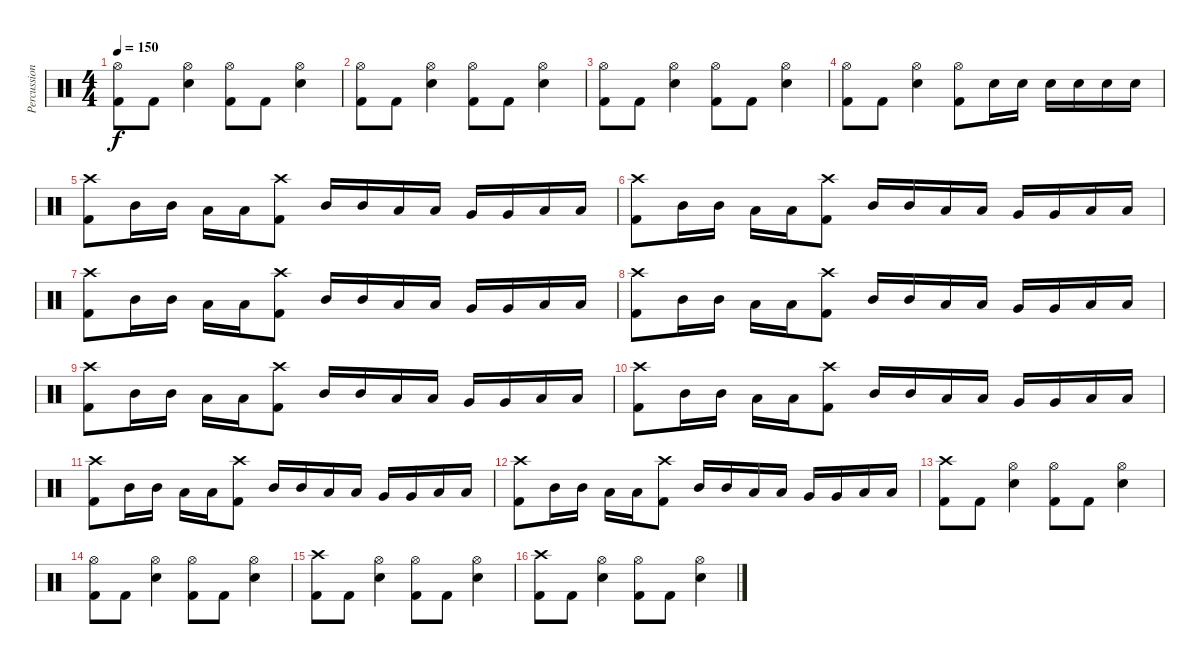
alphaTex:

\track ("Percussion" "Percussion") {instrument percussion}
\staff {score}
\articulation defaults
\ts (4 4)
\tempo 150
\clef neutral
\ks c
("Kick (hit) 2" "Hi-Hat (open)").8{dy f} "Kick (hit) 2".8 ("Electric Snare (hit)" "Hi-Hat (open)").4 ("Kick (hit) 2" "Hi-Hat (open)").8 "Kick (hit) 2".8 ("Electric Snare (hit)" "Hi-Hat (open)").4 |
("Kick (hit) 2" "Hi-Hat (open)").8 "Kick (hit) 2".8 ("Electric Snare (hit)" "Hi-Hat (open)").4 ("Kick (hit) 2" "Hi-Hat (open)").8 "Kick (hit) 2".8 ("Electric Snare (hit)" "Hi-Hat (open)").4 |
("Kick (hit) 2" "Hi-Hat (open)").8 "Kick (hit) 2".8 ("Electric Snare (hit)" "Hi-Hat (open)").4 ("Kick (hit) 2" "Hi-Hat (open)").8 "Kick (hit) 2".8 ("Electric Snare (hit)" "Hi-Hat (open)").4 |
("Kick (hit) 2" "Hi-Hat (open)").8 "Kick (hit) 2".8 ("Electric Snare (hit)" "Hi-Hat (open)").4 ("Kick (hit) 2" "Hi-Hat (open)").8 "Electric Snare (hit)".16 "Electric Snare (hit)".16 "Electric Snare (hit)".16 "Electric Snare (hit)".16 "Electric Snare (hit)".16 "Electric Snare (hit)".16 |
("Kick (hit) 2" "Crash high (hit)").8 "Mid Tom (hit)".16 "Mid Tom (hit)".16 "Low Tom (hit)".16 "Low Tom (hit)".16 ("Kick (hit) 2" "Crash high (hit)").8 "Mid Tom (hit)".16 "Mid Tom (hit)".16 "Low Tom (hit)".16 "Low Tom (hit)".16 "Very Low Tom (hit)".16 "Very Low Tom (hit)".16 "Low Floor Tom (hit)".16 "Low Floor Tom (hit)".16 |
("Kick (hit) 2" "Crash high (hit)").8 "Mid Tom (hit)".16 "Mid Tom (hit)".16 "Low Tom (hit)".16 "Low Tom (hit)".16 ("Kick (hit) 2" "Crash high (hit)").8 "Mid Tom (hit)".16 "Mid Tom (hit)".16 "Low Tom (hit)".16 "Low Tom (hit)".16 "Very Low Tom (hit)".16 "Very Low Tom (hit)".16 "Low Floor Tom (hit)".16 "Low Floor Tom (hit)".16 |
("Kick (hit) 2" "Crash high (hit)").8 "Mid Tom (hit)".16 "Mid Tom (hit)".16 "Low Tom (hit)".16 "Low Tom (hit)".16 ("Kick (hit) 2" "Crash high (hit)").8 "Mid Tom (hit)".16 "Mid Tom (hit)".16 "Low Tom (hit)".16 "Low Tom (hit)".16 "Very Low Tom (hit)".16 "Very Low Tom (hit)".16 "Low Floor Tom (hit)".16 "Low Floor Tom (hit)".16 |
("Kick (hit) 2" "Crash high (hit)").8 "Mid Tom (hit)".16 "Mid Tom (hit)".16 "Low Tom (hit)".16 "Low Tom (hit)".16 ("Kick (hit) 2" "Crash high (hit)").8 "Mid Tom (hit)".16 "Mid Tom (hit)".16 "Low Tom (hit)".16 "Low Tom (hit)".16 "Very Low Tom (hit)".16 "Very Low Tom (hit)".16 "Low Floor Tom (hit)".16 "Low Floor Tom (hit)".16 |
("Kick (hit) 2" "Crash high (hit)").8 "Mid Tom (hit)".16 "Mid Tom (hit)".16 "Low Tom (hit)".16 "Low Tom (hit)".16 ("Kick (hit) 2" "Crash high (hit)").8 "Mid Tom (hit)".16 "Mid Tom (hit)".16 "Low Tom (hit)".16 "Low Tom (hit)".16 "Very Low Tom (hit)".16 "Very Low Tom (hit)".16 "Low Floor Tom (hit)".16 "Low Floor Tom (hit)".16 |
("Kick (hit) 2" "Crash high (hit)").8 "Mid Tom (hit)".16 "Mid Tom (hit)".16 "Low Tom (hit)".16 "Low Tom (hit)".16 ("Kick (hit) 2" "Crash high (hit)").8 "Mid Tom (hit)".16 "Mid Tom (hit)".16 "Low Tom (hit)".16 "Low Tom (hit)".16 "Very Low Tom (hit)".16 "Very Low Tom (hit)".16 "Low Floor Tom (hit)".16 "Low Floor Tom (hit)".16 |
("Kick (hit) 2" "Crash high (hit)").8 "Mid Tom (hit)".16 "Mid Tom (hit)".16 "Low Tom (hit)".16 "Low Tom (hit)".16 ("Kick (hit) 2" "Crash high (hit)").8 "Mid Tom (hit)".16 "Mid Tom (hit)".16 "Low Tom (hit)".16 "Low Tom (hit)".16 "Very Low Tom (hit)".16 "Very Low Tom (hit)".16 "Low Floor Tom (hit)".16 "Low Floor Tom (hit)".16 |
("Kick (hit) 2" "Crash high (hit)").8 "Mid Tom (hit)".16 "Mid Tom (hit)".16 "Low Tom (hit)".16 "Low Tom (hit)".16 ("Kick (hit) 2" "Crash high (hit)").8 "Mid Tom (hit)".16 "Mid Tom (hit)".16 "Low Tom (hit)".16 "Low Tom (hit)".16 "Very Low Tom (hit)".16 "Very Low Tom (hit)".16 "Low Floor Tom (hit)".16 "Low Floor Tom (hit)".16 |
("Kick (hit) 2" "Crash high (hit)").8 "Kick (hit) 2".8 ("Electric Snare (hit)" "Hi-Hat (open)").4 ("Kick (hit) 2" "Hi-Hat (open)").8 "Kick (hit) 2".8 ("Electric Snare (hit)" "Hi-Hat (open)").4 |
("Kick (hit) 2" "Hi-Hat (open)").8 "Kick (hit) 2".8 ("Electric Snare (hit)" "Hi-Hat (open)").4 ("Kick (hit) 2" "Hi-Hat (open)").8 "Kick (hit) 2".8 ("Electric Snare (hit)" "Hi-Hat (open)").4 |
("Kick (hit) 2" "Crash high (hit)").8 "Kick (hit) 2".8 ("Electric Snare (hit)" "Hi-Hat (open)").4 ("Kick (hit) 2" "Hi-Hat (open)").8 "Kick (hit) 2".8 ("Electric Snare (hit)" "Hi-Hat (open)").4 |
("Kick (hit) 2" "Crash high (hit)").8 "Kick (hit) 2".8 ("Electric Snare (hit)" "Hi-Hat (open)").4 ("Kick (hit) 2" "Hi-Hat (open)").8 "Kick (hit) 2".8 ("Electric Snare (hit)" "Hi-Hat (open)").4
